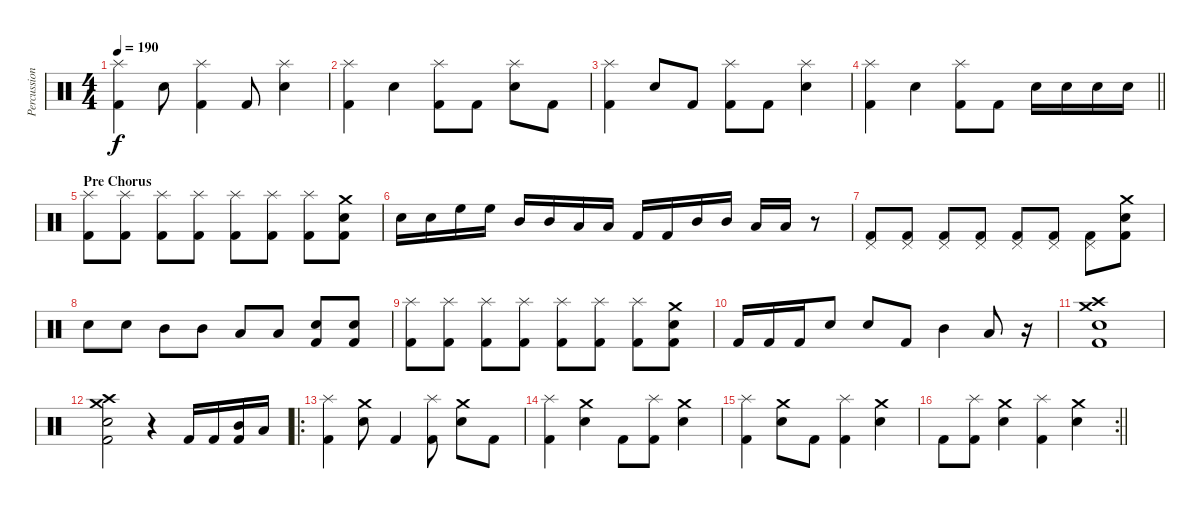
\track ("Percussion" "Percussion") {instrument percussion}
\staff {score}
\articulation defaults
\ts (4 4)
\tempo 190
\clef neutral
\ks c
("Splash (hit)" "Kick (hit) 2").4{dy f} "Electric Snare (hit)".8 ("Splash (hit)" "Kick (hit) 2").4 "Kick (hit) 2".8 ("Splash (hit)" "Electric Snare (hit)").4 |
("Splash (hit)" "Kick (hit) 2").4 "Electric Snare (hit)".4 ("Splash (hit)" "Kick (hit) 2").8 "Kick (hit) 2".8 ("Splash (hit)" "Electric Snare (hit)").8 "Kick (hit) 2".8 |
("Splash (hit)" "Kick (hit) 2").4 "Electric Snare (hit)".8 "Kick (hit) 2".8 ("Splash (hit)" "Kick (hit) 2").8 "Kick (hit) 2".8 ("Splash (hit)" "Electric Snare (hit)").4 |
\barLineRight lightlight
("Splash (hit)" "Kick (hit) 2").4 "Electric Snare (hit)".4 ("Splash (hit)" "Kick (hit) 2").8 "Kick (hit) 2".8 "Electric Snare (hit)".16 "Electric Snare (hit)".16 "Electric Snare (hit)".16 "Electric Snare (hit)".16 |
\section ("" "Pre Chorus")
("Splash (hit)" "Kick (hit) 2").8 ("Splash (hit)" "Kick (hit) 2").8 ("Splash (hit)" "Kick (hit) 2").8 ("Splash (hit)" "Kick (hit) 2").8 ("Splash (hit)" "Kick (hit) 2").8 ("Splash (hit)" "Kick (hit) 2").8 ("Splash (hit)" "Kick (hit) 2").8 ("Crash medium (hit)" "Electric Snare (hit)" "Kick (hit) 2").8 |
"Electric Snare (hit)".16 "Electric Snare (hit)".16 "High Floor Tom (hit)".16 "High Floor Tom (hit)".16 "Mid Tom (hit)".16 "Mid Tom (hit)".16 "Low Tom (hit)".16 "Low Tom (hit)".16 "Kick (hit) 2".16 "Kick (hit) 2".16 "Mid Tom (hit)".16 "Mid Tom (hit)".16 "Low Tom (hit)".16 "Low Tom (hit)".16 r.8 |
("Pedal Hi-Hat (hit)" "Kick (hit) 2").8 ("Pedal Hi-Hat (hit)" "Kick (hit) 2").8 ("Pedal Hi-Hat (hit)" "Kick (hit) 2").8 ("Pedal Hi-Hat (hit)" "Kick (hit) 2").8 ("Pedal Hi-Hat (hit)" "Kick (hit) 2").8 ("Pedal Hi-Hat (hit)" "Kick (hit) 2").8 ("Pedal Hi-Hat (hit)" "Kick (hit) 2").8 ("Crash medium (hit)" "Electric Snare (hit)" "Kick (hit) 2").8 |
"Electric Snare (hit)".8 "Electric Snare (hit)".8 "Mid Tom (hit)".8 "Mid Tom (hit)".8 "Low Tom (hit)".8 "Low Tom (hit)".8 ("Electric Snare (hit)" "Kick (hit) 2").8 ("Electric Snare (hit)" "Kick (hit) 2").8 |
("Splash (hit)" "Kick (hit) 2").8 ("Splash (hit)" "Kick (hit) 2").8 ("Splash (hit)" "Kick (hit) 2").8 ("Splash (hit)" "Kick (hit) 2").8 ("Splash (hit)" "Kick (hit) 2").8 ("Splash (hit)" "Kick (hit) 2").8 ("Splash (hit)" "Kick (hit) 2").8 ("Crash medium (hit)" "Electric Snare (hit)" "Kick (hit) 2").8 |
"Kick (hit) 2".16 "Kick (hit) 2".16 "Kick (hit) 2".16 "Electric Snare (hit)".8 "Electric Snare (hit)".8 "Kick (hit) 2".8 "Mid Tom (hit)".4 "Low Tom (hit)".8 r.16 |
("Crash high (hit)" "Crash medium (hit)" "Electric Snare (hit)" "Kick (hit) 2").1 |
("Crash high (hit)" "Crash medium (hit)" "Electric Snare (hit)" "Kick (hit) 2").2 r.4 "Kick (hit) 2".16 "Kick (hit) 2".16 ("Mid Tom (hit)" "Kick (hit) 2").16 "Low Tom (hit)".16 |
\ro
("Splash (hit)" "Kick (hit) 2").4 ("Crash medium (hit)" "Electric Snare (hit)").8 "Kick (hit) 2".4 ("Splash (hit)" "Kick (hit) 2").8 ("Crash medium (hit)" "Electric Snare (hit)").8 "Kick (hit) 2".8 |
("Splash (hit)" "Kick (hit) 2").4 ("Crash medium (hit)" "Electric Snare (hit)").4 "Kick (hit) 2".8 ("Splash (hit)" "Kick (hit) 2").8 ("Crash medium (hit)" "Electric Snare (hit)").4 |
("Splash (hit)" "Kick (hit) 2").4 ("Crash medium (hit)" "Electric Snare (hit)").8 "Kick (hit) 2".8 ("Splash (hit)" "Kick (hit) 2").4 ("Crash medium (hit)" "Electric Snare (hit)").4 |
\rc 2
\barLineRight lightlight "Kick (hit) 2".8
("Splash (hit)" "Kick (hit) 2").8 ("Crash medium (hit)" "Electric Snare (hit)").4 ("Splash (hit)" "Kick (hit) 2").4 ("Crash medium (hit)" "Electric Snare (hit)").4
